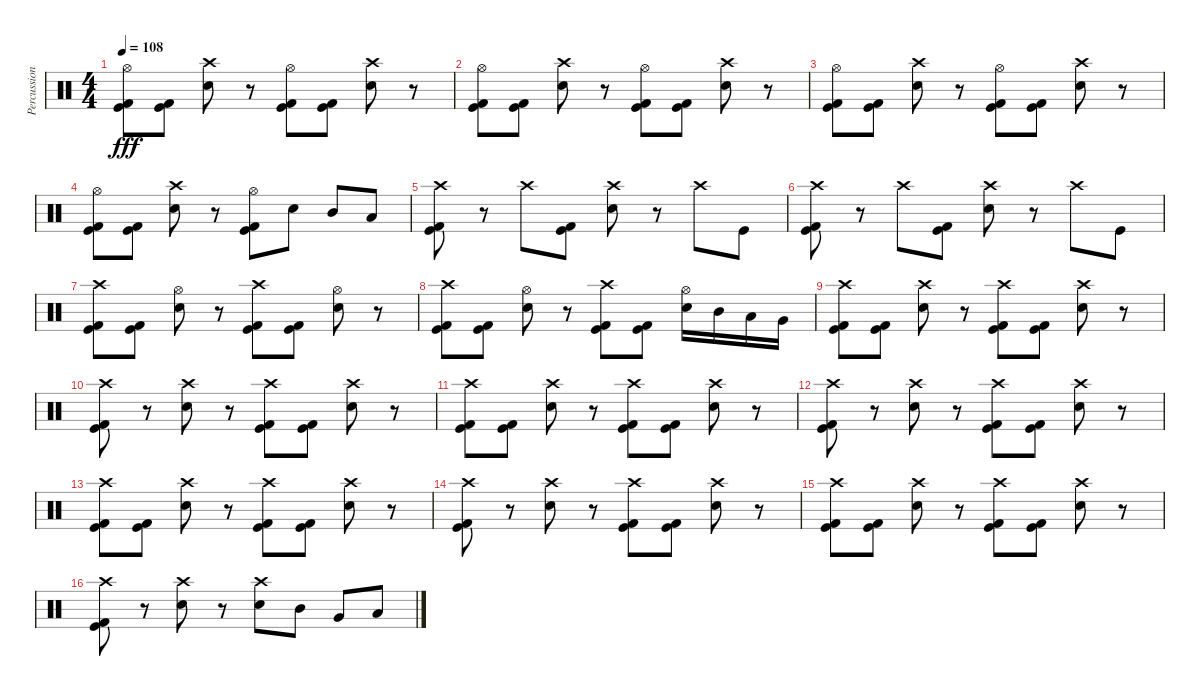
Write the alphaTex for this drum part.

\track ("Percussion" "Percussion") {instrument percussion}
\staff {score}
\articulation defaults
\ts (4 4)
\tempo 108
\clef neutral
\ks c
("Hi-Hat (open)" "Kick (hit) 2" "Kick (hit)").8{dy fff} ("Kick (hit) 2" "Kick (hit)").8 ("Crash high (hit)" "Snare (hit) 2").8 r.8 ("Hi-Hat (open)" "Kick (hit) 2" "Kick (hit)").8 ("Kick (hit) 2" "Kick (hit)").8 ("Crash high (hit)" "Snare (hit) 2").8 r.8 |
("Hi-Hat (open)" "Kick (hit) 2" "Kick (hit)").8 ("Kick (hit) 2" "Kick (hit)").8 ("Crash high (hit)" "Snare (hit) 2").8 r.8 ("Hi-Hat (open)" "Kick (hit) 2" "Kick (hit)").8 ("Kick (hit) 2" "Kick (hit)").8 ("Crash high (hit)" "Snare (hit) 2").8 r.8 |
("Hi-Hat (open)" "Kick (hit) 2" "Kick (hit)").8 ("Kick (hit) 2" "Kick (hit)").8 ("Crash high (hit)" "Snare (hit) 2").8 r.8 ("Hi-Hat (open)" "Kick (hit) 2" "Kick (hit)").8 ("Kick (hit) 2" "Kick (hit)").8 ("Crash high (hit)" "Snare (hit) 2").8 r.8 |
("Hi-Hat (open)" "Kick (hit) 2" "Kick (hit)").8 ("Kick (hit) 2" "Kick (hit)").8 ("Crash high (hit)" "Snare (hit) 2").8 r.8 ("Hi-Hat (open)" "Kick (hit) 2" "Kick (hit)").8 "Snare (hit) 2".8 "Mid Tom (hit)".8 "Low Tom (hit)".8 |
("Crash high (hit)" "Kick (hit) 2" "Kick (hit)").8 r.8 "Crash high (hit)".8 ("Kick (hit) 2" "Kick (hit)").8 ("Crash high (hit)" "Snare (hit) 2").8 r.8 "Crash high (hit)".8 "Kick (hit)".8 |
("Crash high (hit)" "Kick (hit) 2" "Kick (hit)").8 r.8 "Crash high (hit)".8 ("Kick (hit) 2" "Kick (hit)").8 ("Crash high (hit)" "Snare (hit) 2").8 r.8 "Crash high (hit)".8 "Kick (hit)".8 |
("Crash high (hit)" "Kick (hit) 2" "Kick (hit)").8 ("Kick (hit) 2" "Kick (hit)").8 ("Hi-Hat (open)" "Snare (hit) 2").8 r.8 ("Crash high (hit)" "Kick (hit) 2" "Kick (hit)").8 ("Kick (hit) 2" "Kick (hit)").8 ("Hi-Hat (open)" "Snare (hit) 2").8 r.8 |
("Crash high (hit)" "Kick (hit) 2" "Kick (hit)").8 ("Kick (hit) 2" "Kick (hit)").8 ("Hi-Hat (open)" "Snare (hit) 2").8 r.8 ("Crash high (hit)" "Kick (hit) 2" "Kick (hit)").8 ("Kick (hit) 2" "Kick (hit)").8 ("Hi-Hat (open)" "Snare (hit) 2").16 "Mid Tom (hit)".16 "Low Tom (hit)".16 "Very Low Tom (hit)".16 |
("Crash high (hit)" "Kick (hit) 2" "Kick (hit)").8 ("Kick (hit) 2" "Kick (hit)").8 ("Crash high (hit)" "Snare (hit) 2").8 r.8 ("Crash high (hit)" "Kick (hit) 2" "Kick (hit)").8 ("Kick (hit) 2" "Kick (hit)").8 ("Crash high (hit)" "Snare (hit) 2").8 r.8 |
("Crash high (hit)" "Kick (hit) 2" "Kick (hit)").8 r.8 ("Crash high (hit)" "Snare (hit) 2").8 r.8 ("Crash high (hit)" "Kick (hit) 2" "Kick (hit)").8 ("Kick (hit) 2" "Kick (hit)").8 ("Crash high (hit)" "Snare (hit) 2").8 r.8 |
("Crash high (hit)" "Kick (hit) 2" "Kick (hit)").8 ("Kick (hit) 2" "Kick (hit)").8 ("Crash high (hit)" "Snare (hit) 2").8 r.8 ("Crash high (hit)" "Kick (hit) 2" "Kick (hit)").8 ("Kick (hit) 2" "Kick (hit)").8 ("Crash high (hit)" "Snare (hit) 2").8 r.8 |
("Crash high (hit)" "Kick (hit) 2" "Kick (hit)").8 r.8 ("Crash high (hit)" "Snare (hit) 2").8 r.8 ("Crash high (hit)" "Kick (hit) 2" "Kick (hit)").8 ("Kick (hit) 2" "Kick (hit)").8 ("Crash high (hit)" "Snare (hit) 2").8 r.8 |
("Crash high (hit)" "Kick (hit) 2" "Kick (hit)").8 ("Kick (hit) 2" "Kick (hit)").8 ("Crash high (hit)" "Snare (hit) 2").8 r.8 ("Crash high (hit)" "Kick (hit) 2" "Kick (hit)").8 ("Kick (hit) 2" "Kick (hit)").8 ("Crash high (hit)" "Snare (hit) 2").8 r.8 |
("Crash high (hit)" "Kick (hit) 2" "Kick (hit)").8 r.8 ("Crash high (hit)" "Snare (hit) 2").8 r.8 ("Crash high (hit)" "Kick (hit) 2" "Kick (hit)").8 ("Kick (hit) 2" "Kick (hit)").8 ("Crash high (hit)" "Snare (hit) 2").8 r.8 |
("Crash high (hit)" "Kick (hit) 2" "Kick (hit)").8 ("Kick (hit) 2" "Kick (hit)").8 ("Crash high (hit)" "Snare (hit) 2").8 r.8 ("Crash high (hit)" "Kick (hit) 2" "Kick (hit)").8 ("Kick (hit) 2" "Kick (hit)").8 ("Crash high (hit)" "Snare (hit) 2").8 r.8 |
("Crash high (hit)" "Kick (hit) 2" "Kick (hit)").8 r.8 ("Crash high (hit)" "Snare (hit) 2").8 r.8 ("Crash high (hit)" "Snare (hit) 2").8 "Mid Tom (hit)".8 "Very Low Tom (hit)".8 "Low Tom (hit)".8
